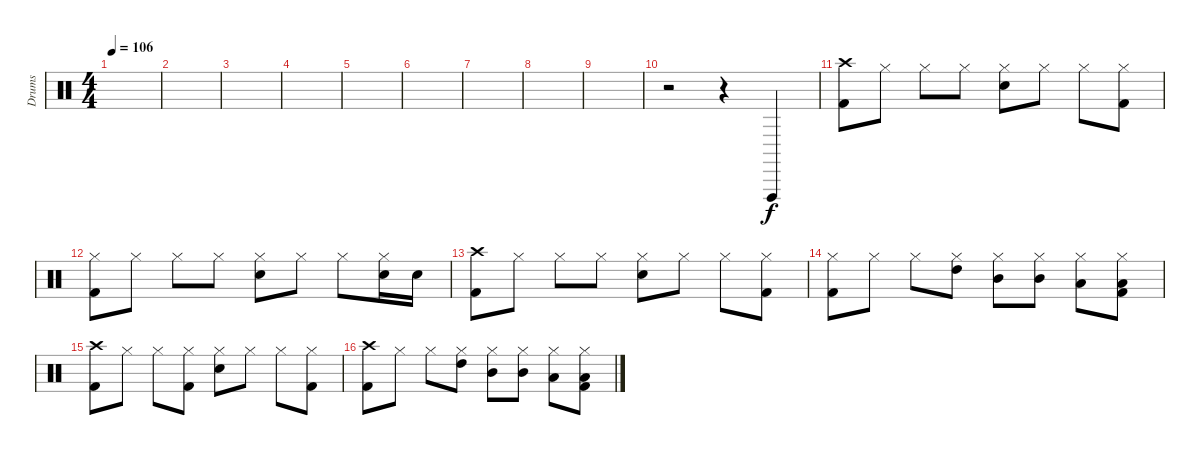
\track ("Drums" "Drums") {instrument percussion}
\staff {score}
\articulation defaults
\ts (4 4)
\tempo 106
\clef neutral
\ks c
|
|
|
|
|
|
|
|
|
r.2 r.4 "Vibraslap (hit)".4 |
("Crash high (hit)" "Kick (hit) 2").8 "Hi-Hat (closed)".8 "Hi-Hat (closed)".8 "Hi-Hat (closed)".8 ("Hi-Hat (closed)" "Snare (hit) 2").8 "Hi-Hat (closed)".8 "Hi-Hat (closed)".8 ("Hi-Hat (closed)" "Kick (hit) 2").8 |
("Hi-Hat (closed)" "Kick (hit) 2").8 "Hi-Hat (closed)".8 "Hi-Hat (closed)".8 "Hi-Hat (closed)".8 ("Hi-Hat (closed)" "Snare (hit) 2").8 "Hi-Hat (closed)".8 "Hi-Hat (closed)".8 ("Hi-Hat (closed)" "Snare (hit) 2").16 "Snare (hit) 2".16 |
("Crash high (hit)" "Kick (hit) 2").8 "Hi-Hat (closed)".8 "Hi-Hat (closed)".8 "Hi-Hat (closed)".8 ("Hi-Hat (closed)" "Snare (hit) 2").8 "Hi-Hat (closed)".8 "Hi-Hat (closed)".8 ("Hi-Hat (closed)" "Kick (hit) 2").8 |
("Hi-Hat (closed)" "Kick (hit) 2").8 "Hi-Hat (closed)".8 "Hi-Hat (closed)".8 ("Hi-Hat (closed)" "High Tom (hit)").8 ("Hi-Hat (closed)" "Mid Tom (hit)").8 ("Hi-Hat (closed)" "Mid Tom (hit)").8 ("Hi-Hat (closed)" "Low Tom (hit)").8 ("Hi-Hat (closed)" "Low Tom (hit)" "Kick (hit) 2").8 |
("Crash high (hit)" "Kick (hit) 2").8 "Hi-Hat (closed)".8 "Hi-Hat (closed)".8 ("Hi-Hat (closed)" "Kick (hit) 2").8 ("Hi-Hat (closed)" "Snare (hit) 2").8 "Hi-Hat (closed)".8 "Hi-Hat (closed)".8 ("Hi-Hat (closed)" "Kick (hit) 2").8 |
("Crash high (hit)" "Kick (hit) 2").8 "Hi-Hat (closed)".8 "Hi-Hat (closed)".8 ("Hi-Hat (closed)" "High Tom (hit)").8 ("Hi-Hat (closed)" "Mid Tom (hit)").8 ("Hi-Hat (closed)" "Mid Tom (hit)").8 ("Hi-Hat (closed)" "Low Tom (hit)").8 ("Hi-Hat (closed)" "Low Tom (hit)" "Kick (hit) 2").8
